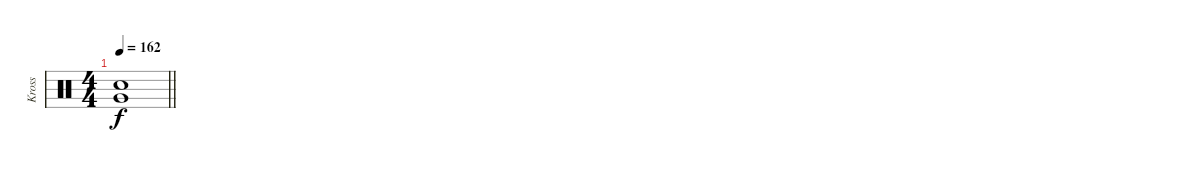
\track ("Kross" "Kross") {instrument percussion}
\staff {score}
\articulation defaults
\ts (4 4)
\tempo 162
\clef neutral
\barLineRight lightlight
\ks c
("Very Low Tom (hit)" "Electric Snare (hit)").1{dy f}
